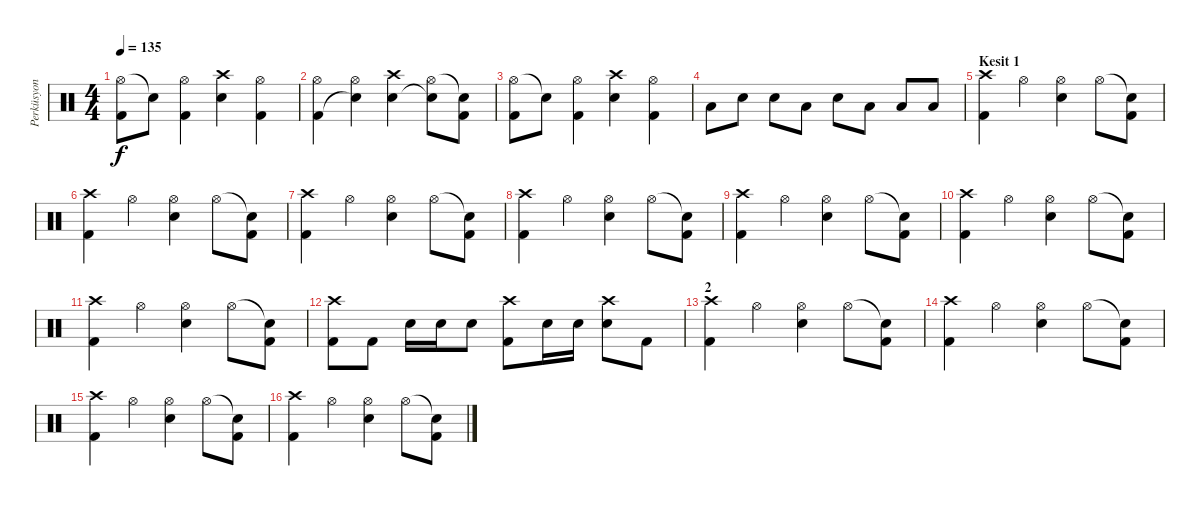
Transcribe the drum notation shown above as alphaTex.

\track ("Perküsyon" "Perküsyon") {instrument percussion}
\staff {score}
\articulation defaults
\ts (4 4)
\tempo 135
\clef neutral
\ks c
("Hi-Hat (open)" "Kick (hit) 2").8{dy f} "Snare (hit)"{t}.8 ("Hi-Hat (open)" "Kick (hit) 2").4 ("Crash high (hit)" "Snare (hit) 2").4 ("Hi-Hat (open)" "Kick (hit) 2").4 |
("Hi-Hat (open)" "Kick (hit) 2").4 ("Hi-Hat (open)" "Snare (hit)"{t}).4 ("Crash high (hit)" "Snare (hit) 2").4 ("Hi-Hat (open)" "Snare (hit)"{t}).8 ("Snare (hit)"{t} "Kick (hit) 2").8 |
("Hi-Hat (open)" "Kick (hit) 2").8 "Snare (hit)"{t}.8 ("Hi-Hat (open)" "Kick (hit) 2").4 ("Crash high (hit)" "Snare (hit) 2").4 ("Hi-Hat (open)" "Kick (hit) 2").4 |
"Low Tom (hit)".8 "Snare (hit) 2".8 "Snare (hit) 2".8 "Low Tom (hit)".8 "Snare (hit) 2".8 "Low Tom (hit)".8 "Low Tom (hit)".8 "Low Tom (hit)".8 |
\section ("" "Kesit 1")
("Crash high (hit)" "Kick (hit) 2").4 "Hi-Hat (open)".4 ("Hi-Hat (open)" "Snare (hit) 2").4 "Hi-Hat (open)".8 ("Snare (hit)"{t} "Kick (hit) 2").8 |
("Crash high (hit)" "Kick (hit) 2").4 "Hi-Hat (open)".4 ("Hi-Hat (open)" "Snare (hit) 2").4 "Hi-Hat (open)".8 ("Snare (hit)"{t} "Kick (hit) 2").8 |
("Crash high (hit)" "Kick (hit) 2").4 "Hi-Hat (open)".4 ("Hi-Hat (open)" "Snare (hit) 2").4 "Hi-Hat (open)".8 ("Snare (hit)"{t} "Kick (hit) 2").8 |
("Crash high (hit)" "Kick (hit) 2").4 "Hi-Hat (open)".4 ("Hi-Hat (open)" "Snare (hit) 2").4 "Hi-Hat (open)".8 ("Snare (hit)"{t} "Kick (hit) 2").8 |
("Crash high (hit)" "Kick (hit) 2").4 "Hi-Hat (open)".4 ("Hi-Hat (open)" "Snare (hit) 2").4 "Hi-Hat (open)".8 ("Snare (hit)"{t} "Kick (hit) 2").8 |
("Crash high (hit)" "Kick (hit) 2").4 "Hi-Hat (open)".4 ("Hi-Hat (open)" "Snare (hit) 2").4 "Hi-Hat (open)".8 ("Snare (hit)"{t} "Kick (hit) 2").8 |
("Crash high (hit)" "Kick (hit) 2").4 "Hi-Hat (open)".4 ("Hi-Hat (open)" "Snare (hit) 2").4 "Hi-Hat (open)".8 ("Snare (hit)"{t} "Kick (hit) 2").8 |
("Kick (hit) 2" "Crash high (hit)").8 "Kick (hit) 2".8 "Snare (hit) 2".16 "Snare (hit) 2".16 "Snare (hit) 2".8 ("Kick (hit) 2" "Crash high (hit)").8 "Snare (hit) 2".16 "Snare (hit) 2".16 ("Snare (hit) 2" "Crash high (hit)").8 "Kick (hit) 2".8 |
\section ("" "2")
("Crash high (hit)" "Kick (hit) 2").4 "Hi-Hat (open)".4 ("Hi-Hat (open)" "Snare (hit) 2").4 "Hi-Hat (open)".8 ("Snare (hit)"{t} "Kick (hit) 2").8 |
("Crash high (hit)" "Kick (hit) 2").4 "Hi-Hat (open)".4 ("Hi-Hat (open)" "Snare (hit) 2").4 "Hi-Hat (open)".8 ("Snare (hit)"{t} "Kick (hit) 2").8 |
("Crash high (hit)" "Kick (hit) 2").4 "Hi-Hat (open)".4 ("Hi-Hat (open)" "Snare (hit) 2").4 "Hi-Hat (open)".8 ("Snare (hit)"{t} "Kick (hit) 2").8 |
("Crash high (hit)" "Kick (hit) 2").4 "Hi-Hat (open)".4 ("Hi-Hat (open)" "Snare (hit) 2").4 "Hi-Hat (open)".8 ("Snare (hit)"{t} "Kick (hit) 2").8
